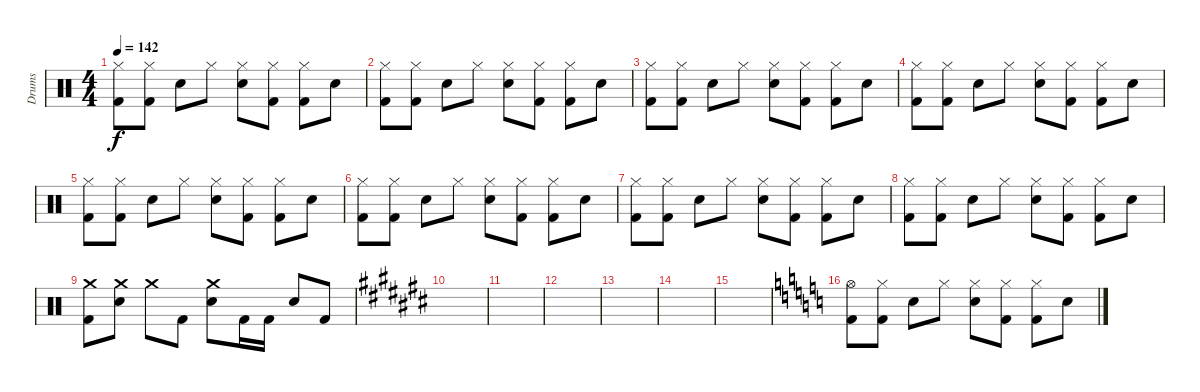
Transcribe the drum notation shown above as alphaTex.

\track ("Drums" "Drums") {instrument percussion}
\staff {score}
\articulation defaults
\ts (4 4)
\tempo 142
\clef neutral
\ks c
("Hi-Hat (closed)" "Kick (hit) 2").8{dy f} ("Hi-Hat (closed)" "Kick (hit) 2").8 "Electric Snare (hit)".8 "Hi-Hat (closed)".8 ("Hi-Hat (closed)" "Electric Snare (hit)").8 ("Hi-Hat (closed)" "Kick (hit) 2").8 ("Hi-Hat (closed)" "Kick (hit) 2").8 "Electric Snare (hit)".8 |
("Hi-Hat (closed)" "Kick (hit) 2").8 ("Hi-Hat (closed)" "Kick (hit) 2").8 "Electric Snare (hit)".8 "Hi-Hat (closed)".8 ("Hi-Hat (closed)" "Electric Snare (hit)").8 ("Hi-Hat (closed)" "Kick (hit) 2").8 ("Hi-Hat (closed)" "Kick (hit) 2").8 "Electric Snare (hit)".8 |
("Hi-Hat (closed)" "Kick (hit) 2").8 ("Hi-Hat (closed)" "Kick (hit) 2").8 "Electric Snare (hit)".8 "Hi-Hat (closed)".8 ("Hi-Hat (closed)" "Electric Snare (hit)").8 ("Hi-Hat (closed)" "Kick (hit) 2").8 ("Hi-Hat (closed)" "Kick (hit) 2").8 "Electric Snare (hit)".8 |
("Hi-Hat (closed)" "Kick (hit) 2").8 ("Hi-Hat (closed)" "Kick (hit) 2").8 "Electric Snare (hit)".8 "Hi-Hat (closed)".8 ("Hi-Hat (closed)" "Electric Snare (hit)").8 ("Hi-Hat (closed)" "Kick (hit) 2").8 ("Hi-Hat (closed)" "Kick (hit) 2").8 "Electric Snare (hit)".8 |
("Hi-Hat (closed)" "Kick (hit) 2").8 ("Hi-Hat (closed)" "Kick (hit) 2").8 "Electric Snare (hit)".8 "Hi-Hat (closed)".8 ("Hi-Hat (closed)" "Electric Snare (hit)").8 ("Hi-Hat (closed)" "Kick (hit) 2").8 ("Hi-Hat (closed)" "Kick (hit) 2").8 "Electric Snare (hit)".8 |
("Hi-Hat (closed)" "Kick (hit) 2").8 ("Hi-Hat (closed)" "Kick (hit) 2").8 "Electric Snare (hit)".8 "Hi-Hat (closed)".8 ("Hi-Hat (closed)" "Electric Snare (hit)").8 ("Hi-Hat (closed)" "Kick (hit) 2").8 ("Hi-Hat (closed)" "Kick (hit) 2").8 "Electric Snare (hit)".8 |
("Hi-Hat (closed)" "Kick (hit) 2").8 ("Hi-Hat (closed)" "Kick (hit) 2").8 "Electric Snare (hit)".8 "Hi-Hat (closed)".8 ("Hi-Hat (closed)" "Electric Snare (hit)").8 ("Hi-Hat (closed)" "Kick (hit) 2").8 ("Hi-Hat (closed)" "Kick (hit) 2").8 "Electric Snare (hit)".8 |
("Hi-Hat (closed)" "Kick (hit) 2").8 ("Hi-Hat (closed)" "Kick (hit) 2").8 "Electric Snare (hit)".8 "Hi-Hat (closed)".8 ("Hi-Hat (closed)" "Electric Snare (hit)").8 ("Hi-Hat (closed)" "Kick (hit) 2").8 ("Hi-Hat (closed)" "Kick (hit) 2").8 "Electric Snare (hit)".8 |
("Crash medium (hit)" "Kick (hit) 2").8 ("Crash medium (hit)" "Electric Snare (hit)").8 "Crash medium (hit)".8 "Kick (hit) 2".8 ("Crash medium (hit)" "Electric Snare (hit)").8 "Kick (hit) 2".16 "Kick (hit) 2".16 "Electric Snare (hit)".8 "Kick (hit) 2".8 |
\ks a#minor
|
|
|
\ks c#
|
\ks a#minor
|
|
\ks c
("Hi-Hat (open)" "Kick (hit) 2").8 ("Hi-Hat (closed)" "Kick (hit) 2").8 "Electric Snare (hit)".8 "Hi-Hat (closed)".8 ("Hi-Hat (closed)" "Electric Snare (hit)").8 ("Hi-Hat (closed)" "Kick (hit) 2").8 ("Hi-Hat (closed)" "Kick (hit) 2").8 "Electric Snare (hit)".8
